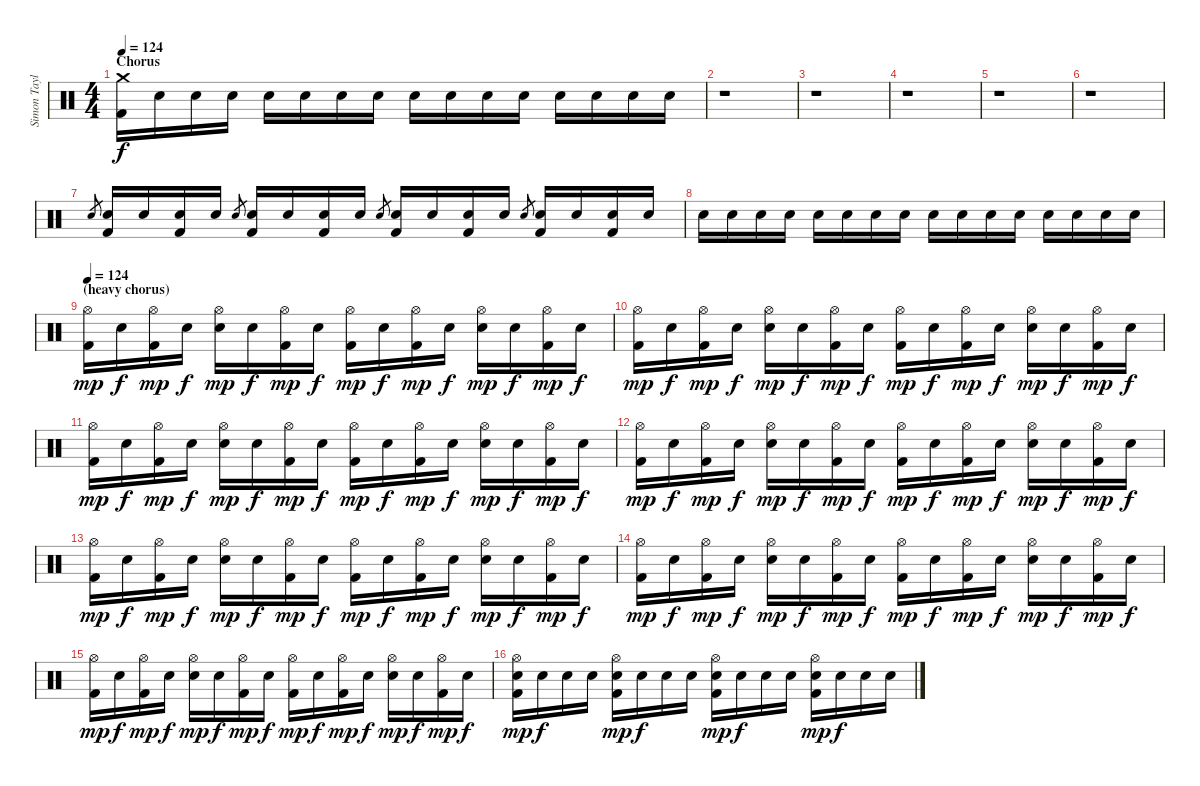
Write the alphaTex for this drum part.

\track ("Simon Taylor - Drums" "Simon Tayl") {instrument percussion}
\staff {score}
\articulation defaults
\ts (4 4)
\section ("" "Chorus")
\tempo 124
\clef neutral
\ks c
("Crash medium (hit)" "Kick (hit) 2").16{dy f volume 16 balance 8} "Snare (hit)".16 "Snare (hit)".16 "Snare (hit)".16 "Snare (hit)".16 "Snare (hit)".16 "Snare (hit)".16 "Snare (hit)".16 "Snare (hit)".16 "Snare (hit)".16 "Snare (hit)".16 "Snare (hit)".16 "Snare (hit)".16 "Snare (hit)".16 "Snare (hit)".16 "Snare (hit)".16 |
r.1 |
r.1 |
r.1 |
r.1 |
r.1 |
"Electric Snare (hit)".8{gr} ("Electric Snare (hit)" "Kick (hit) 2").16 "Snare (hit)".16 ("Snare (hit)" "Kick (hit) 2").16 "Snare (hit)".16 "Electric Snare (hit)".8{gr} ("Electric Snare (hit)" "Kick (hit) 2").16 "Snare (hit)".16 ("Snare (hit)" "Kick (hit) 2").16 "Snare (hit)".16 "Electric Snare (hit)".8{gr} ("Electric Snare (hit)" "Kick (hit) 2").16 "Snare (hit)".16 ("Snare (hit)" "Kick (hit) 2").16 "Snare (hit)".16 "Electric Snare (hit)".8{gr} ("Electric Snare (hit)" "Kick (hit) 2").16 "Snare (hit)".16 ("Snare (hit)" "Kick (hit) 2").16 "Snare (hit)".16 |
"Electric Snare (hit)".16 "Electric Snare (hit)".16 "Electric Snare (hit)".16 "Electric Snare (hit)".16 "Electric Snare (hit)".16 "Snare (hit)".16 "Electric Snare (hit)".16 "Electric Snare (hit)".16 "Electric Snare (hit)".16 "Electric Snare (hit)".16 "Electric Snare (hit)".16 "Snare (hit)".16 "Electric Snare (hit)".16 "Electric Snare (hit)".16 "Electric Snare (hit)".16 "Electric Snare (hit)".16 |
\section ("" "(heavy chorus)")
\tempo 124
("Hi-Hat (open)" "Kick (hit) 2").16{dy mp volume 16 balance 8} "Snare (hit)".16{dy f} ("Hi-Hat (open)" "Kick (hit) 2").16{dy mp} "Snare (hit)".16{dy f} ("Hi-Hat (open)" "Electric Snare (hit)").16{dy mp} "Snare (hit)".16{dy f} ("Hi-Hat (open)" "Kick (hit) 2").16{dy mp} "Snare (hit)".16{dy f} ("Hi-Hat (open)" "Kick (hit) 2").16{dy mp} "Snare (hit)".16{dy f} ("Hi-Hat (open)" "Kick (hit) 2").16{dy mp} "Snare (hit)".16{dy f} ("Hi-Hat (open)" "Electric Snare (hit)").16{dy mp} "Snare (hit)".16{dy f} ("Hi-Hat (open)" "Kick (hit) 2").16{dy mp} "Snare (hit)".16{dy f} |
("Hi-Hat (open)" "Kick (hit) 2").16{dy mp} "Snare (hit)".16{dy f} ("Hi-Hat (open)" "Kick (hit) 2").16{dy mp} "Snare (hit)".16{dy f} ("Hi-Hat (open)" "Electric Snare (hit)").16{dy mp} "Snare (hit)".16{dy f} ("Hi-Hat (open)" "Kick (hit) 2").16{dy mp} "Snare (hit)".16{dy f} ("Hi-Hat (open)" "Kick (hit) 2").16{dy mp} "Snare (hit)".16{dy f} ("Hi-Hat (open)" "Kick (hit) 2").16{dy mp} "Snare (hit)".16{dy f} ("Hi-Hat (open)" "Electric Snare (hit)").16{dy mp} "Snare (hit)".16{dy f} ("Hi-Hat (open)" "Kick (hit) 2").16{dy mp} "Snare (hit)".16{dy f} |
("Hi-Hat (open)" "Kick (hit) 2").16{dy mp} "Snare (hit)".16{dy f} ("Hi-Hat (open)" "Kick (hit) 2").16{dy mp} "Snare (hit)".16{dy f} ("Hi-Hat (open)" "Electric Snare (hit)").16{dy mp} "Snare (hit)".16{dy f} ("Hi-Hat (open)" "Kick (hit) 2").16{dy mp} "Snare (hit)".16{dy f} ("Hi-Hat (open)" "Kick (hit) 2").16{dy mp} "Snare (hit)".16{dy f} ("Hi-Hat (open)" "Kick (hit) 2").16{dy mp} "Snare (hit)".16{dy f} ("Hi-Hat (open)" "Electric Snare (hit)").16{dy mp} "Snare (hit)".16{dy f} ("Hi-Hat (open)" "Kick (hit) 2").16{dy mp} "Snare (hit)".16{dy f} |
("Hi-Hat (open)" "Kick (hit) 2").16{dy mp} "Snare (hit)".16{dy f} ("Hi-Hat (open)" "Kick (hit) 2").16{dy mp} "Snare (hit)".16{dy f} ("Hi-Hat (open)" "Electric Snare (hit)").16{dy mp} "Snare (hit)".16{dy f} ("Hi-Hat (open)" "Kick (hit) 2").16{dy mp} "Snare (hit)".16{dy f} ("Hi-Hat (open)" "Kick (hit) 2").16{dy mp} "Snare (hit)".16{dy f} ("Hi-Hat (open)" "Kick (hit) 2").16{dy mp} "Snare (hit)".16{dy f} ("Hi-Hat (open)" "Electric Snare (hit)").16{dy mp} "Snare (hit)".16{dy f} ("Hi-Hat (open)" "Kick (hit) 2").16{dy mp} "Snare (hit)".16{dy f} |
("Hi-Hat (open)" "Kick (hit) 2").16{dy mp} "Snare (hit)".16{dy f} ("Hi-Hat (open)" "Kick (hit) 2").16{dy mp} "Snare (hit)".16{dy f} ("Hi-Hat (open)" "Electric Snare (hit)").16{dy mp} "Snare (hit)".16{dy f} ("Hi-Hat (open)" "Kick (hit) 2").16{dy mp} "Snare (hit)".16{dy f} ("Hi-Hat (open)" "Kick (hit) 2").16{dy mp} "Snare (hit)".16{dy f} ("Hi-Hat (open)" "Kick (hit) 2").16{dy mp} "Snare (hit)".16{dy f} ("Hi-Hat (open)" "Electric Snare (hit)").16{dy mp} "Snare (hit)".16{dy f} ("Hi-Hat (open)" "Kick (hit) 2").16{dy mp} "Snare (hit)".16{dy f} |
("Hi-Hat (open)" "Kick (hit) 2").16{dy mp} "Snare (hit)".16{dy f} ("Hi-Hat (open)" "Kick (hit) 2").16{dy mp} "Snare (hit)".16{dy f} ("Hi-Hat (open)" "Electric Snare (hit)").16{dy mp} "Snare (hit)".16{dy f} ("Hi-Hat (open)" "Kick (hit) 2").16{dy mp} "Snare (hit)".16{dy f} ("Hi-Hat (open)" "Kick (hit) 2").16{dy mp} "Snare (hit)".16{dy f} ("Hi-Hat (open)" "Kick (hit) 2").16{dy mp} "Snare (hit)".16{dy f} ("Hi-Hat (open)" "Electric Snare (hit)").16{dy mp} "Snare (hit)".16{dy f} ("Hi-Hat (open)" "Kick (hit) 2").16{dy mp} "Snare (hit)".16{dy f} |
("Hi-Hat (open)" "Kick (hit) 2").16{dy mp} "Snare (hit)".16{dy f} ("Hi-Hat (open)" "Kick (hit) 2").16{dy mp} "Snare (hit)".16{dy f} ("Hi-Hat (open)" "Electric Snare (hit)").16{dy mp} "Snare (hit)".16{dy f} ("Hi-Hat (open)" "Kick (hit) 2").16{dy mp} "Snare (hit)".16{dy f} ("Hi-Hat (open)" "Kick (hit) 2").16{dy mp} "Snare (hit)".16{dy f} ("Hi-Hat (open)" "Kick (hit) 2").16{dy mp} "Snare (hit)".16{dy f} ("Hi-Hat (open)" "Electric Snare (hit)").16{dy mp} "Snare (hit)".16{dy f} ("Hi-Hat (open)" "Kick (hit) 2").16{dy mp} "Snare (hit)".16{dy f} |
("Hi-Hat (open)" "Electric Snare (hit)" "Kick (hit) 2").16{dy mp} "Electric Snare (hit)".16{dy f} "Electric Snare (hit)".16 "Snare (hit)".16 ("Hi-Hat (open)" "Electric Snare (hit)" "Kick (hit) 2").16{dy mp} "Electric Snare (hit)".16{dy f} "Electric Snare (hit)".16 "Snare (hit)".16 ("Hi-Hat (open)" "Electric Snare (hit)" "Kick (hit) 2").16{dy mp} "Electric Snare (hit)".16{dy f} "Electric Snare (hit)".16 "Snare (hit)".16 ("Hi-Hat (open)" "Electric Snare (hit)" "Kick (hit) 2").16{dy mp} "Electric Snare (hit)".16{dy f} "Electric Snare (hit)".16 "Snare (hit)".16
